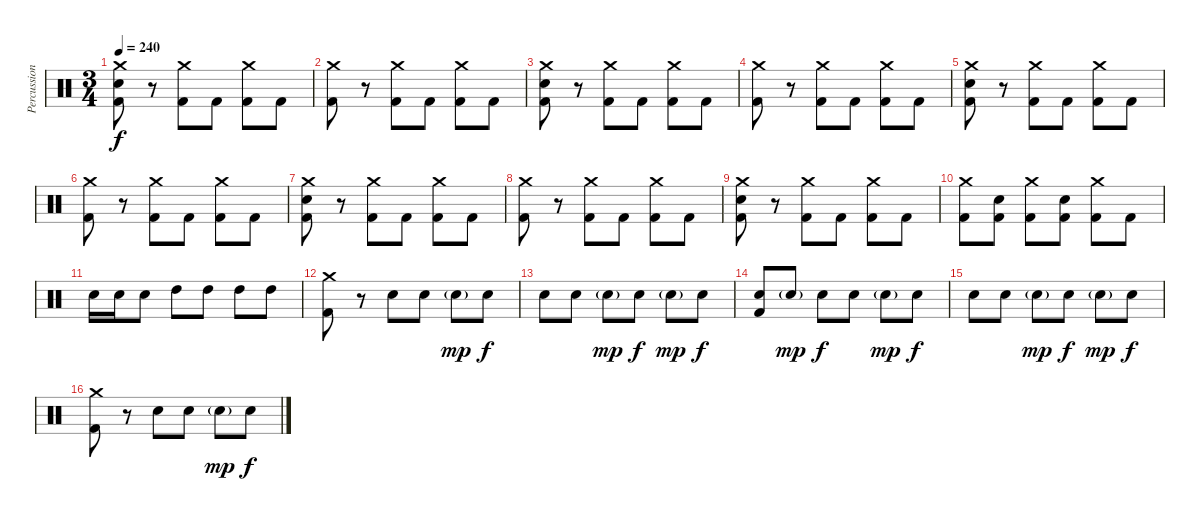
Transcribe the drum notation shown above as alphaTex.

\track ("Percussion" "Percussion") {instrument percussion}
\staff {score}
\articulation defaults
\ts (3 4)
\tempo 240
\clef neutral
\ks c
("Crash medium (hit)" "Electric Snare (hit)" "Kick (hit) 2").8{dy f} r.8 ("Crash medium (hit)" "Kick (hit) 2").8 "Kick (hit) 2".8 ("Crash medium (hit)" "Kick (hit) 2").8 "Kick (hit) 2".8 |
("Crash medium (hit)" "Kick (hit) 2").8 r.8 ("Crash medium (hit)" "Kick (hit) 2").8 "Kick (hit) 2".8 ("Crash medium (hit)" "Kick (hit) 2").8 "Kick (hit) 2".8 |
("Crash medium (hit)" "Electric Snare (hit)" "Kick (hit) 2").8 r.8 ("Crash medium (hit)" "Kick (hit) 2").8 "Kick (hit) 2".8 ("Crash medium (hit)" "Kick (hit) 2").8 "Kick (hit) 2".8 |
("Crash medium (hit)" "Kick (hit) 2").8 r.8 ("Crash medium (hit)" "Kick (hit) 2").8 "Kick (hit) 2".8 ("Crash medium (hit)" "Kick (hit) 2").8 "Kick (hit) 2".8 |
("Crash medium (hit)" "Electric Snare (hit)" "Kick (hit) 2").8 r.8 ("Crash medium (hit)" "Kick (hit) 2").8 "Kick (hit) 2".8 ("Crash medium (hit)" "Kick (hit) 2").8 "Kick (hit) 2".8 |
("Crash medium (hit)" "Kick (hit) 2").8 r.8 ("Crash medium (hit)" "Kick (hit) 2").8 "Kick (hit) 2".8 ("Crash medium (hit)" "Kick (hit) 2").8 "Kick (hit) 2".8 |
("Crash medium (hit)" "Electric Snare (hit)" "Kick (hit) 2").8 r.8 ("Crash medium (hit)" "Kick (hit) 2").8 "Kick (hit) 2".8 ("Crash medium (hit)" "Kick (hit) 2").8 "Kick (hit) 2".8 |
("Crash medium (hit)" "Kick (hit) 2").8 r.8 ("Crash medium (hit)" "Kick (hit) 2").8 "Kick (hit) 2".8 ("Crash medium (hit)" "Kick (hit) 2").8 "Kick (hit) 2".8 |
("Crash medium (hit)" "Electric Snare (hit)" "Kick (hit) 2").8 r.8 ("Crash medium (hit)" "Kick (hit) 2").8 "Kick (hit) 2".8 ("Crash medium (hit)" "Kick (hit) 2").8 "Kick (hit) 2".8 |
("Crash medium (hit)" "Kick (hit) 2").8 ("Electric Snare (hit)" "Kick (hit) 2").8 ("Crash medium (hit)" "Kick (hit) 2").8 ("Electric Snare (hit)" "Kick (hit) 2").8 ("Crash medium (hit)" "Kick (hit) 2").8 "Kick (hit) 2".8 |
"Electric Snare (hit)".16 "Electric Snare (hit)".16 "Electric Snare (hit)".8 "High Tom (hit)".8 "High Tom (hit)".8 "High Tom (hit)".8 "High Tom (hit)".8 |
("Crash medium (hit)" "Kick (hit) 2").8 r.8 "Electric Snare (hit)".8 "Electric Snare (hit)".8 "Electric Snare (hit)"{g}.8{dy mp} "Electric Snare (hit)".8{dy f} |
"Electric Snare (hit)".8 "Electric Snare (hit)".8 "Electric Snare (hit)"{g}.8{dy mp} "Electric Snare (hit)".8{dy f} "Electric Snare (hit)"{g}.8{dy mp} "Electric Snare (hit)".8{dy f} |
("Electric Snare (hit)" "Kick (hit) 2").8 "Electric Snare (hit)"{g}.8{dy mp} "Electric Snare (hit)".8{dy f} "Electric Snare (hit)".8 "Electric Snare (hit)"{g}.8{dy mp} "Electric Snare (hit)".8{dy f} |
"Electric Snare (hit)".8 "Electric Snare (hit)".8 "Electric Snare (hit)"{g}.8{dy mp} "Electric Snare (hit)".8{dy f} "Electric Snare (hit)"{g}.8{dy mp} "Electric Snare (hit)".8{dy f} |
("Crash medium (hit)" "Kick (hit) 2").8 r.8 "Electric Snare (hit)".8 "Electric Snare (hit)".8 "Electric Snare (hit)"{g}.8{dy mp} "Electric Snare (hit)".8{dy f}
